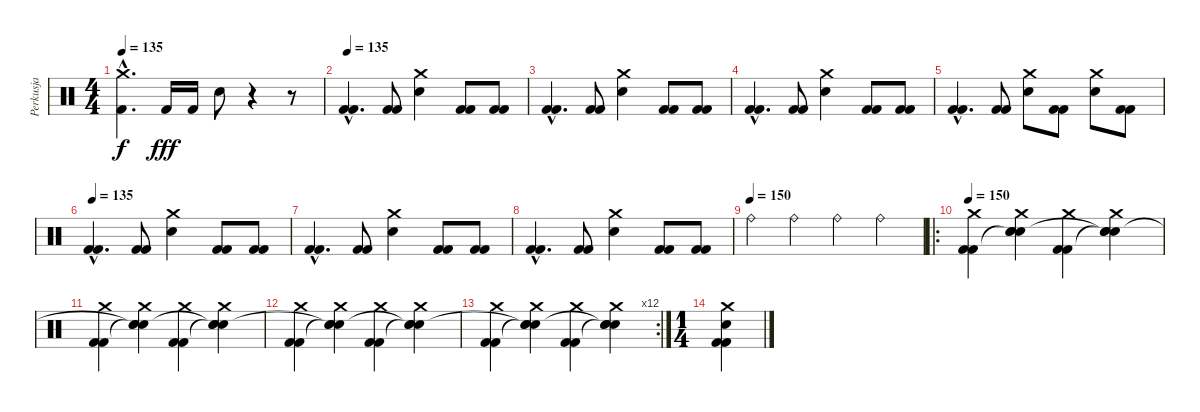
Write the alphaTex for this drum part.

\track ("Perkusja" "Perkusja") {instrument percussion}
\staff {score}
\articulation defaults
\ts (4 4)
\tempo 135
\clef neutral
\ks c
("Crash medium (hit)"{hac} "Kick (hit) 2"{hac}).4{d dy f} "Kick (hit) 2".16{dy fff} "Kick (hit) 2".16 "Snare (hit) 2".8 r.4 r.8 |
\tempo 135
("Kick (hit) 2"{hac} "Kick (hit) 2"{hac}).4{d} ("Kick (hit) 2" "Kick (hit) 2").8 ("Crash medium (hit)" "Snare (hit) 2").4 ("Kick (hit) 2" "Kick (hit) 2").8 ("Kick (hit) 2" "Kick (hit) 2").8 |
("Kick (hit) 2"{hac} "Kick (hit) 2"{hac}).4{d} ("Kick (hit) 2" "Kick (hit) 2").8 ("Crash medium (hit)" "Snare (hit) 2").4 ("Kick (hit) 2" "Kick (hit) 2").8 ("Kick (hit) 2" "Kick (hit) 2").8 |
("Kick (hit) 2"{hac} "Kick (hit) 2"{hac}).4{d} ("Kick (hit) 2" "Kick (hit) 2").8 ("Crash medium (hit)" "Snare (hit) 2").4 ("Kick (hit) 2" "Kick (hit) 2").8 ("Kick (hit) 2" "Kick (hit) 2").8 |
("Kick (hit) 2"{hac} "Kick (hit) 2"{hac}).4{d} ("Kick (hit) 2" "Kick (hit) 2").8 ("Crash medium (hit)" "Snare (hit) 2").8 ("Kick (hit) 2" "Kick (hit) 2").8 ("Crash medium (hit)" "Snare (hit) 2").8 ("Kick (hit) 2" "Kick (hit) 2").8 |
\tempo 135
("Kick (hit) 2"{hac} "Kick (hit) 2"{hac}).4{d} ("Kick (hit) 2" "Kick (hit) 2").8 ("Crash medium (hit)" "Snare (hit) 2").4 ("Kick (hit) 2" "Kick (hit) 2").8 ("Kick (hit) 2" "Kick (hit) 2").8 |
("Kick (hit) 2"{hac} "Kick (hit) 2"{hac}).4{d} ("Kick (hit) 2" "Kick (hit) 2").8 ("Crash medium (hit)" "Snare (hit) 2").4 ("Kick (hit) 2" "Kick (hit) 2").8 ("Kick (hit) 2" "Kick (hit) 2").8 |
("Kick (hit) 2"{hac} "Kick (hit) 2"{hac}).4{d} ("Kick (hit) 2" "Kick (hit) 2").8 ("Crash medium (hit)" "Snare (hit) 2").4 ("Kick (hit) 2" "Kick (hit) 2").8 ("Kick (hit) 2" "Kick (hit) 2").8 |
\tempo (150)
"Ride (bell)".4 "Ride (bell)".4 "Ride (bell)".4 "Ride (bell)".4 |
\ro
\tempo 150
("Crash medium (hit)" "Kick (hit) 2"{tr (36 16)} "Kick (hit) 2").4 ("Crash medium (hit)" "Snare (hit) 2" "Snare (hit) 2"{t} "Snare (hit)").4 ("Crash medium (hit)" "Kick (hit) 2"{tr (36 16)} "Kick (hit) 2").4 ("Crash medium (hit)" "Snare (hit) 2" "Snare (hit) 2"{t} "Snare (hit)"{t}).4 |
("Crash medium (hit)" "Kick (hit) 2"{tr (36 16)} "Kick (hit) 2").4 ("Crash medium (hit)" "Snare (hit) 2" "Snare (hit) 2"{t} "Snare (hit)"{t}).4 ("Crash medium (hit)" "Kick (hit) 2"{tr (36 16)} "Kick (hit) 2").4 ("Crash medium (hit)" "Snare (hit) 2" "Snare (hit) 2"{t} "Snare (hit)"{t}).4 |
("Crash medium (hit)" "Kick (hit) 2"{tr (36 16)} "Kick (hit) 2").4 ("Crash medium (hit)" "Snare (hit) 2" "Snare (hit) 2"{t} "Snare (hit)"{t}).4 ("Crash medium (hit)" "Kick (hit) 2"{tr (36 16)} "Kick (hit) 2").4 ("Crash medium (hit)" "Snare (hit) 2" "Snare (hit) 2"{t} "Snare (hit)"{t}).4 |
\rc 12
("Crash medium (hit)" "Kick (hit) 2"{tr (36 16)} "Kick (hit) 2").4 ("Crash medium (hit)" "Snare (hit) 2" "Snare (hit) 2"{t} "Snare (hit)"{t}).4 ("Crash medium (hit)" "Kick (hit) 2"{tr (36 16)} "Kick (hit) 2").4 ("Crash medium (hit)" "Snare (hit) 2" "Snare (hit) 2"{t} "Snare (hit)"{t}).4 |
\ts (1 4)
("Crash medium (hit)" "Snare (hit) 2" "Kick (hit) 2" "Kick (hit) 2").4
